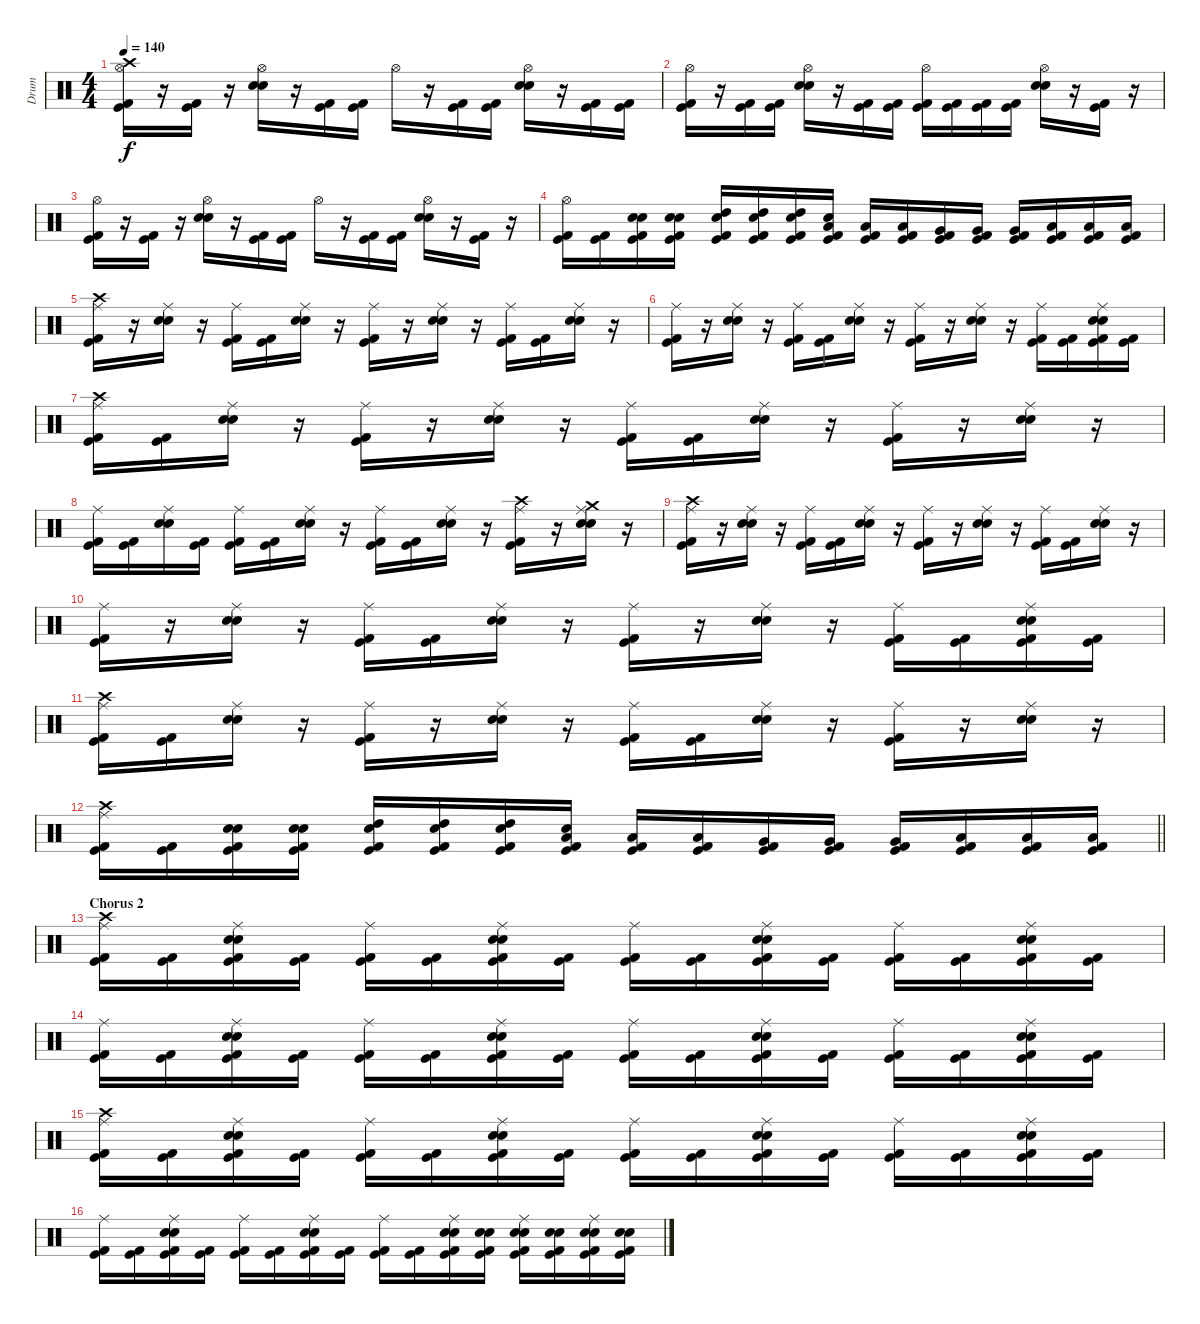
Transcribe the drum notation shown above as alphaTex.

\track ("Drum" "Drum") {instrument percussion}
\staff {score}
\articulation defaults
\ts (4 4)
\tempo 140
\clef neutral
\ks c
("Crash high (hit)" "Hi-Hat (open)" "Kick (hit)" "Kick (hit) 2").16{dy f} r.16 ("Kick (hit)" "Kick (hit) 2").16 r.16 ("Hi-Hat (open)" "Snare (hit) 2" "Electric Snare (hit)").16 r.16 ("Kick (hit)" "Kick (hit) 2").16 ("Kick (hit)" "Kick (hit) 2").16 "Hi-Hat (open)".16 r.16 ("Kick (hit)" "Kick (hit) 2").16 ("Kick (hit)" "Kick (hit) 2").16 ("Hi-Hat (open)" "Snare (hit) 2" "Electric Snare (hit)").16 r.16 ("Kick (hit)" "Kick (hit) 2").16 ("Kick (hit)" "Kick (hit) 2").16 |
("Hi-Hat (open)" "Kick (hit)" "Kick (hit) 2").16 r.16 ("Kick (hit)" "Kick (hit) 2").16 ("Kick (hit)" "Kick (hit) 2").16 ("Hi-Hat (open)" "Snare (hit) 2" "Electric Snare (hit)").16 r.16 ("Kick (hit)" "Kick (hit) 2").16 ("Kick (hit)" "Kick (hit) 2").16 ("Hi-Hat (open)" "Kick (hit)" "Kick (hit) 2").16 ("Kick (hit)" "Kick (hit) 2").16 ("Kick (hit)" "Kick (hit) 2").16 ("Kick (hit)" "Kick (hit) 2").16 ("Hi-Hat (open)" "Snare (hit) 2" "Electric Snare (hit)").16 r.16 ("Kick (hit)" "Kick (hit) 2").16 r.16 |
("Hi-Hat (open)" "Kick (hit)" "Kick (hit) 2").16 r.16 ("Kick (hit)" "Kick (hit) 2").16 r.16 ("Hi-Hat (open)" "Snare (hit) 2" "Electric Snare (hit)").16 r.16 ("Kick (hit)" "Kick (hit) 2").16 ("Kick (hit)" "Kick (hit) 2").16 "Hi-Hat (open)".16 r.16 ("Kick (hit)" "Kick (hit) 2").16 ("Kick (hit)" "Kick (hit) 2").16 ("Hi-Hat (open)" "Snare (hit) 2" "Electric Snare (hit)").16 r.16 ("Kick (hit)" "Kick (hit) 2").16 r.16 |
("Hi-Hat (open)" "Kick (hit)" "Kick (hit) 2").16 ("Kick (hit)" "Kick (hit) 2").16 ("Snare (hit) 2" "Electric Snare (hit)" "Kick (hit)" "Kick (hit) 2").16 ("Snare (hit) 2" "Electric Snare (hit)" "Kick (hit)" "Kick (hit) 2").16 ("High Tom (hit)" "Electric Snare (hit)" "Kick (hit)" "Kick (hit) 2").16 ("High Tom (hit)" "Electric Snare (hit)" "Kick (hit)" "Kick (hit) 2").16 ("High Tom (hit)" "Electric Snare (hit)" "Kick (hit)" "Kick (hit) 2").16 ("Low Tom (hit)" "Electric Snare (hit)" "Kick (hit)" "Kick (hit) 2").16 ("Low Tom (hit)" "Kick (hit)" "Kick (hit) 2").16 ("Low Tom (hit)" "Kick (hit)" "Kick (hit) 2").16 ("Very Low Tom (hit)" "Kick (hit)" "Kick (hit) 2").16 ("Very Low Tom (hit)" "Kick (hit)" "Kick (hit) 2").16 ("Very Low Tom (hit)" "Kick (hit)" "Kick (hit) 2").16 ("Low Floor Tom (hit)" "Kick (hit)" "Kick (hit) 2").16 ("Low Floor Tom (hit)" "Kick (hit)" "Kick (hit) 2").16 ("Low Floor Tom (hit)" "Kick (hit)" "Kick (hit) 2").16 |
("Crash high (hit)" "Ride (middle)" "Kick (hit)" "Kick (hit) 2").16 r.16 ("Ride (middle)" "Snare (hit) 2" "Electric Snare (hit)").16 r.16 ("Ride (middle)" "Kick (hit)" "Kick (hit) 2").16 ("Kick (hit)" "Kick (hit) 2").16 ("Ride (middle)" "Snare (hit) 2" "Electric Snare (hit)").16 r.16 ("Ride (middle)" "Kick (hit)" "Kick (hit) 2").16 r.16 ("Ride (middle)" "Snare (hit) 2" "Electric Snare (hit)").16 r.16 ("Ride (middle)" "Kick (hit)" "Kick (hit) 2").16 ("Kick (hit)" "Kick (hit) 2").16 ("Ride (middle)" "Snare (hit) 2" "Electric Snare (hit)").16 r.16 |
("Ride (middle)" "Kick (hit)" "Kick (hit) 2").16 r.16 ("Ride (middle)" "Snare (hit) 2" "Electric Snare (hit)").16 r.16 ("Ride (middle)" "Kick (hit)" "Kick (hit) 2").16 ("Kick (hit)" "Kick (hit) 2").16 ("Ride (middle)" "Snare (hit) 2" "Electric Snare (hit)").16 r.16 ("Ride (middle)" "Kick (hit)" "Kick (hit) 2").16 r.16 ("Ride (middle)" "Snare (hit) 2" "Electric Snare (hit)").16 r.16 ("Ride (middle)" "Kick (hit)" "Kick (hit) 2").16 ("Kick (hit)" "Kick (hit) 2").16 ("Ride (middle)" "Snare (hit) 2" "Electric Snare (hit)" "Kick (hit)" "Kick (hit) 2").16 ("Kick (hit)" "Kick (hit) 2").16 |
("Crash high (hit)" "Ride (middle)" "Kick (hit)" "Kick (hit) 2").16 ("Kick (hit)" "Kick (hit) 2").16 ("Ride (middle)" "Snare (hit) 2" "Electric Snare (hit)").16 r.16 ("Ride (middle)" "Kick (hit)" "Kick (hit) 2").16 r.16 ("Ride (middle)" "Snare (hit) 2" "Electric Snare (hit)").16 r.16 ("Ride (middle)" "Kick (hit)" "Kick (hit) 2").16 ("Kick (hit)" "Kick (hit) 2").16 ("Ride (middle)" "Snare (hit) 2" "Electric Snare (hit)").16 r.16 ("Ride (middle)" "Kick (hit)" "Kick (hit) 2").16 r.16 ("Ride (middle)" "Snare (hit) 2" "Electric Snare (hit)").16 r.16 |
("Ride (middle)" "Kick (hit)" "Kick (hit) 2").16 ("Kick (hit)" "Kick (hit) 2").16 ("Ride (middle)" "Snare (hit) 2" "Electric Snare (hit)").16 ("Kick (hit)" "Kick (hit) 2").16 ("Ride (middle)" "Kick (hit)" "Kick (hit) 2").16 ("Kick (hit)" "Kick (hit) 2").16 ("Ride (middle)" "Snare (hit) 2" "Electric Snare (hit)").16 r.16 ("Ride (middle)" "Kick (hit)" "Kick (hit) 2").16 ("Kick (hit)" "Kick (hit) 2").16 ("Ride (middle)" "Snare (hit) 2" "Electric Snare (hit)").16 r.16 ("Crash high (hit)" "Ride (middle)" "Kick (hit)" "Kick (hit) 2").16 r.16 ("Crash medium (hit)" "Ride (middle)" "Snare (hit) 2" "Electric Snare (hit)").16 r.16 |
("Crash high (hit)" "Ride (middle)" "Kick (hit)" "Kick (hit) 2").16 r.16 ("Ride (middle)" "Snare (hit) 2" "Electric Snare (hit)").16 r.16 ("Ride (middle)" "Kick (hit)" "Kick (hit) 2").16 ("Kick (hit)" "Kick (hit) 2").16 ("Ride (middle)" "Snare (hit) 2" "Electric Snare (hit)").16 r.16 ("Ride (middle)" "Kick (hit)" "Kick (hit) 2").16 r.16 ("Ride (middle)" "Snare (hit) 2" "Electric Snare (hit)").16 r.16 ("Ride (middle)" "Kick (hit)" "Kick (hit) 2").16 ("Kick (hit)" "Kick (hit) 2").16 ("Ride (middle)" "Snare (hit) 2" "Electric Snare (hit)").16 r.16 |
("Ride (middle)" "Kick (hit)" "Kick (hit) 2").16 r.16 ("Ride (middle)" "Snare (hit) 2" "Electric Snare (hit)").16 r.16 ("Ride (middle)" "Kick (hit)" "Kick (hit) 2").16 ("Kick (hit)" "Kick (hit) 2").16 ("Ride (middle)" "Snare (hit) 2" "Electric Snare (hit)").16 r.16 ("Ride (middle)" "Kick (hit)" "Kick (hit) 2").16 r.16 ("Ride (middle)" "Snare (hit) 2" "Electric Snare (hit)").16 r.16 ("Ride (middle)" "Kick (hit)" "Kick (hit) 2").16 ("Kick (hit)" "Kick (hit) 2").16 ("Ride (middle)" "Snare (hit) 2" "Electric Snare (hit)" "Kick (hit)" "Kick (hit) 2").16 ("Kick (hit)" "Kick (hit) 2").16 |
("Crash high (hit)" "Ride (middle)" "Kick (hit)" "Kick (hit) 2").16 ("Kick (hit)" "Kick (hit) 2").16 ("Ride (middle)" "Snare (hit) 2" "Electric Snare (hit)").16 r.16 ("Ride (middle)" "Kick (hit)" "Kick (hit) 2").16 r.16 ("Ride (middle)" "Snare (hit) 2" "Electric Snare (hit)").16 r.16 ("Ride (middle)" "Kick (hit)" "Kick (hit) 2").16 ("Kick (hit)" "Kick (hit) 2").16 ("Ride (middle)" "Snare (hit) 2" "Electric Snare (hit)").16 r.16 ("Ride (middle)" "Kick (hit)" "Kick (hit) 2").16 r.16 ("Ride (middle)" "Snare (hit) 2" "Electric Snare (hit)").16 r.16 |
\barLineRight lightlight
("Crash high (hit)" "Ride (middle)" "Kick (hit)" "Kick (hit) 2").16 ("Kick (hit)" "Kick (hit) 2").16 ("Snare (hit) 2" "Electric Snare (hit)" "Kick (hit)" "Kick (hit) 2").16 ("Snare (hit) 2" "Electric Snare (hit)" "Kick (hit)" "Kick (hit) 2").16 ("High Tom (hit)" "Electric Snare (hit)" "Kick (hit)" "Kick (hit) 2").16 ("High Tom (hit)" "Electric Snare (hit)" "Kick (hit)" "Kick (hit) 2").16 ("High Tom (hit)" "Electric Snare (hit)" "Kick (hit)" "Kick (hit) 2").16 ("Low Tom (hit)" "Electric Snare (hit)" "Kick (hit)" "Kick (hit) 2").16 ("Low Tom (hit)" "Kick (hit)" "Kick (hit) 2").16 ("Low Tom (hit)" "Kick (hit)" "Kick (hit) 2").16 ("Very Low Tom (hit)" "Kick (hit)" "Kick (hit) 2").16 ("Very Low Tom (hit)" "Kick (hit)" "Kick (hit) 2").16 ("Very Low Tom (hit)" "Kick (hit)" "Kick (hit) 2").16 ("Low Floor Tom (hit)" "Kick (hit)" "Kick (hit) 2").16 ("Low Floor Tom (hit)" "Kick (hit)" "Kick (hit) 2").16 ("Low Floor Tom (hit)" "Kick (hit)" "Kick (hit) 2").16 |
\section ("" "Chorus 2")
("Crash high (hit)" "Ride (middle)" "Kick (hit)" "Kick (hit) 2").16 ("Kick (hit)" "Kick (hit) 2").16 ("Ride (middle)" "Snare (hit) 2" "Electric Snare (hit)" "Kick (hit)" "Kick (hit) 2").16 ("Kick (hit)" "Kick (hit) 2").16 ("Ride (middle)" "Kick (hit)" "Kick (hit) 2").16 ("Kick (hit)" "Kick (hit) 2").16 ("Ride (middle)" "Snare (hit) 2" "Electric Snare (hit)" "Kick (hit)" "Kick (hit) 2").16 ("Kick (hit)" "Kick (hit) 2").16 ("Ride (middle)" "Kick (hit)" "Kick (hit) 2").16 ("Kick (hit)" "Kick (hit) 2").16 ("Ride (middle)" "Snare (hit) 2" "Electric Snare (hit)" "Kick (hit)" "Kick (hit) 2").16 ("Kick (hit)" "Kick (hit) 2").16 ("Ride (middle)" "Kick (hit)" "Kick (hit) 2").16 ("Kick (hit)" "Kick (hit) 2").16 ("Ride (middle)" "Snare (hit) 2" "Electric Snare (hit)" "Kick (hit)" "Kick (hit) 2").16 ("Kick (hit)" "Kick (hit) 2").16 |
("Ride (middle)" "Kick (hit)" "Kick (hit) 2").16 ("Kick (hit)" "Kick (hit) 2").16 ("Ride (middle)" "Snare (hit) 2" "Electric Snare (hit)" "Kick (hit)" "Kick (hit) 2").16 ("Kick (hit)" "Kick (hit) 2").16 ("Ride (middle)" "Kick (hit)" "Kick (hit) 2").16 ("Kick (hit)" "Kick (hit) 2").16 ("Ride (middle)" "Snare (hit) 2" "Electric Snare (hit)" "Kick (hit)" "Kick (hit) 2").16 ("Kick (hit)" "Kick (hit) 2").16 ("Ride (middle)" "Kick (hit)" "Kick (hit) 2").16 ("Kick (hit)" "Kick (hit) 2").16 ("Ride (middle)" "Snare (hit) 2" "Electric Snare (hit)" "Kick (hit)" "Kick (hit) 2").16 ("Kick (hit)" "Kick (hit) 2").16 ("Ride (middle)" "Kick (hit)" "Kick (hit) 2").16 ("Kick (hit)" "Kick (hit) 2").16 ("Ride (middle)" "Snare (hit) 2" "Electric Snare (hit)" "Kick (hit)" "Kick (hit) 2").16 ("Kick (hit)" "Kick (hit) 2").16 |
("Crash high (hit)" "Ride (middle)" "Kick (hit)" "Kick (hit) 2").16 ("Kick (hit)" "Kick (hit) 2").16 ("Ride (middle)" "Snare (hit) 2" "Electric Snare (hit)" "Kick (hit)" "Kick (hit) 2").16 ("Kick (hit)" "Kick (hit) 2").16 ("Ride (middle)" "Kick (hit)" "Kick (hit) 2").16 ("Kick (hit)" "Kick (hit) 2").16 ("Ride (middle)" "Snare (hit) 2" "Electric Snare (hit)" "Kick (hit)" "Kick (hit) 2").16 ("Kick (hit)" "Kick (hit) 2").16 ("Ride (middle)" "Kick (hit)" "Kick (hit) 2").16 ("Kick (hit)" "Kick (hit) 2").16 ("Ride (middle)" "Snare (hit) 2" "Electric Snare (hit)" "Kick (hit)" "Kick (hit) 2").16 ("Kick (hit)" "Kick (hit) 2").16 ("Ride (middle)" "Kick (hit)" "Kick (hit) 2").16 ("Kick (hit)" "Kick (hit) 2").16 ("Ride (middle)" "Snare (hit) 2" "Electric Snare (hit)" "Kick (hit)" "Kick (hit) 2").16 ("Kick (hit)" "Kick (hit) 2").16 |
("Ride (middle)" "Kick (hit)" "Kick (hit) 2").16 ("Kick (hit)" "Kick (hit) 2").16 ("Ride (middle)" "Snare (hit) 2" "Electric Snare (hit)" "Kick (hit)" "Kick (hit) 2").16 ("Kick (hit)" "Kick (hit) 2").16 ("Ride (middle)" "Kick (hit)" "Kick (hit) 2").16 ("Kick (hit)" "Kick (hit) 2").16 ("Ride (middle)" "Snare (hit) 2" "Electric Snare (hit)" "Kick (hit)" "Kick (hit) 2").16 ("Kick (hit)" "Kick (hit) 2").16 ("Ride (middle)" "Kick (hit)" "Kick (hit) 2").16 ("Kick (hit)" "Kick (hit) 2").16 ("Ride (middle)" "Snare (hit) 2" "Electric Snare (hit)" "Kick (hit)" "Kick (hit) 2").16 ("Snare (hit) 2" "Electric Snare (hit)" "Kick (hit)" "Kick (hit) 2").16 ("Ride (middle)" "Snare (hit) 2" "Electric Snare (hit)" "Kick (hit)" "Kick (hit) 2").16 ("Snare (hit) 2" "Electric Snare (hit)" "Kick (hit)" "Kick (hit) 2").16 ("Ride (middle)" "Snare (hit) 2" "Electric Snare (hit)" "Kick (hit)" "Kick (hit) 2").16 ("Snare (hit) 2" "Electric Snare (hit)" "Kick (hit)" "Kick (hit) 2").16
